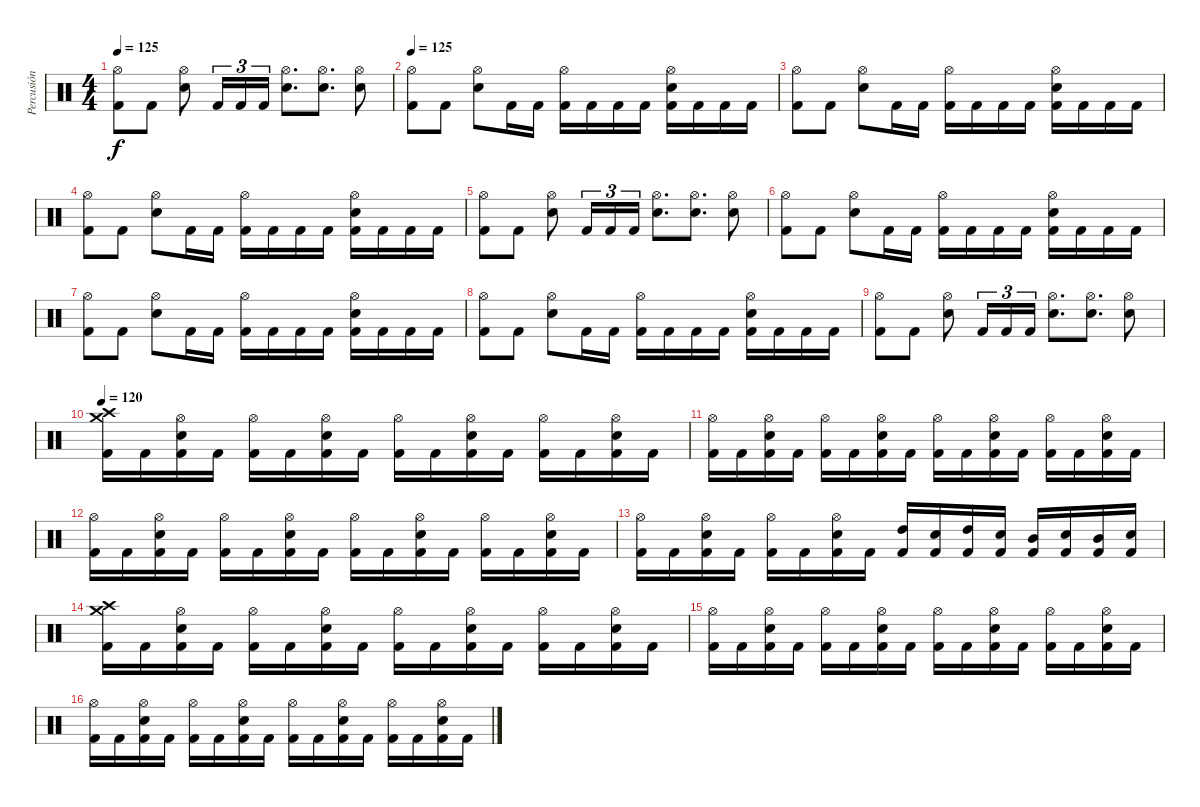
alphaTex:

\track ("Percusión" "Percusión") {instrument percussion}
\staff {score}
\articulation defaults
\ts (4 4)
\tempo 125
\clef neutral
\ks c
("Hi-Hat (open)" "Kick (hit) 2").8{dy f} "Kick (hit) 2".8 ("Hi-Hat (open)" "Electric Snare (hit)").8 "Kick (hit) 2".16{tu (3 2)} "Kick (hit) 2".16{tu (3 2)} "Kick (hit) 2".16{tu (3 2)} ("Hi-Hat (open)" "Electric Snare (hit)").8{d} ("Hi-Hat (open)" "Electric Snare (hit)").8{d} ("Hi-Hat (open)" "Electric Snare (hit)").8 |
\tempo 125
("Hi-Hat (open)" "Kick (hit) 2").8 "Kick (hit) 2".8 ("Hi-Hat (open)" "Electric Snare (hit)").8 "Kick (hit) 2".16 "Kick (hit) 2".16 ("Hi-Hat (open)" "Kick (hit) 2").16 "Kick (hit) 2".16 "Kick (hit) 2".16 "Kick (hit) 2".16 ("Hi-Hat (open)" "Electric Snare (hit)" "Kick (hit) 2").16 "Kick (hit) 2".16 "Kick (hit) 2".16 "Kick (hit) 2".16 |
("Hi-Hat (open)" "Kick (hit) 2").8 "Kick (hit) 2".8 ("Hi-Hat (open)" "Electric Snare (hit)").8 "Kick (hit) 2".16 "Kick (hit) 2".16 ("Hi-Hat (open)" "Kick (hit) 2").16 "Kick (hit) 2".16 "Kick (hit) 2".16 "Kick (hit) 2".16 ("Hi-Hat (open)" "Electric Snare (hit)" "Kick (hit) 2").16 "Kick (hit) 2".16 "Kick (hit) 2".16 "Kick (hit) 2".16 |
("Hi-Hat (open)" "Kick (hit) 2").8 "Kick (hit) 2".8 ("Hi-Hat (open)" "Electric Snare (hit)").8 "Kick (hit) 2".16 "Kick (hit) 2".16 ("Hi-Hat (open)" "Kick (hit) 2").16 "Kick (hit) 2".16 "Kick (hit) 2".16 "Kick (hit) 2".16 ("Hi-Hat (open)" "Electric Snare (hit)" "Kick (hit) 2").16 "Kick (hit) 2".16 "Kick (hit) 2".16 "Kick (hit) 2".16 |
("Hi-Hat (open)" "Kick (hit) 2").8 "Kick (hit) 2".8 ("Hi-Hat (open)" "Electric Snare (hit)").8 "Kick (hit) 2".16{tu (3 2)} "Kick (hit) 2".16{tu (3 2)} "Kick (hit) 2".16{tu (3 2)} ("Hi-Hat (open)" "Electric Snare (hit)").8{d} ("Hi-Hat (open)" "Electric Snare (hit)").8{d} ("Hi-Hat (open)" "Electric Snare (hit)").8 |
("Hi-Hat (open)" "Kick (hit) 2").8 "Kick (hit) 2".8 ("Hi-Hat (open)" "Electric Snare (hit)").8 "Kick (hit) 2".16 "Kick (hit) 2".16 ("Hi-Hat (open)" "Kick (hit) 2").16 "Kick (hit) 2".16 "Kick (hit) 2".16 "Kick (hit) 2".16 ("Hi-Hat (open)" "Electric Snare (hit)" "Kick (hit) 2").16 "Kick (hit) 2".16 "Kick (hit) 2".16 "Kick (hit) 2".16 |
("Hi-Hat (open)" "Kick (hit) 2").8 "Kick (hit) 2".8 ("Hi-Hat (open)" "Electric Snare (hit)").8 "Kick (hit) 2".16 "Kick (hit) 2".16 ("Hi-Hat (open)" "Kick (hit) 2").16 "Kick (hit) 2".16 "Kick (hit) 2".16 "Kick (hit) 2".16 ("Hi-Hat (open)" "Electric Snare (hit)" "Kick (hit) 2").16 "Kick (hit) 2".16 "Kick (hit) 2".16 "Kick (hit) 2".16 |
("Hi-Hat (open)" "Kick (hit) 2").8 "Kick (hit) 2".8 ("Hi-Hat (open)" "Electric Snare (hit)").8 "Kick (hit) 2".16 "Kick (hit) 2".16 ("Hi-Hat (open)" "Kick (hit) 2").16 "Kick (hit) 2".16 "Kick (hit) 2".16 "Kick (hit) 2".16 ("Hi-Hat (open)" "Electric Snare (hit)" "Kick (hit) 2").16 "Kick (hit) 2".16 "Kick (hit) 2".16 "Kick (hit) 2".16 |
("Hi-Hat (open)" "Kick (hit) 2").8 "Kick (hit) 2".8 ("Hi-Hat (open)" "Electric Snare (hit)").8 "Kick (hit) 2".16{tu (3 2)} "Kick (hit) 2".16{tu (3 2)} "Kick (hit) 2".16{tu (3 2)} ("Hi-Hat (open)" "Electric Snare (hit)").8{d} ("Hi-Hat (open)" "Electric Snare (hit)").8{d} ("Hi-Hat (open)" "Electric Snare (hit)").8 |
\tempo 120
("Crash high (hit)" "Crash medium (hit)" "Kick (hit) 2").16 "Kick (hit) 2".16 ("Hi-Hat (open)" "Electric Snare (hit)" "Kick (hit) 2").16 "Kick (hit) 2".16 ("Hi-Hat (open)" "Kick (hit) 2").16 "Kick (hit) 2".16 ("Hi-Hat (open)" "Electric Snare (hit)" "Kick (hit) 2").16 "Kick (hit) 2".16 ("Hi-Hat (open)" "Kick (hit) 2").16 "Kick (hit) 2".16 ("Hi-Hat (open)" "Electric Snare (hit)" "Kick (hit) 2").16 "Kick (hit) 2".16 ("Hi-Hat (open)" "Kick (hit) 2").16 "Kick (hit) 2".16 ("Hi-Hat (open)" "Electric Snare (hit)" "Kick (hit) 2").16 "Kick (hit) 2".16 |
("Hi-Hat (open)" "Kick (hit) 2").16 "Kick (hit) 2".16 ("Hi-Hat (open)" "Electric Snare (hit)" "Kick (hit) 2").16 "Kick (hit) 2".16 ("Hi-Hat (open)" "Kick (hit) 2").16 "Kick (hit) 2".16 ("Hi-Hat (open)" "Electric Snare (hit)" "Kick (hit) 2").16 "Kick (hit) 2".16 ("Hi-Hat (open)" "Kick (hit) 2").16 "Kick (hit) 2".16 ("Hi-Hat (open)" "Electric Snare (hit)" "Kick (hit) 2").16 "Kick (hit) 2".16 ("Hi-Hat (open)" "Kick (hit) 2").16 "Kick (hit) 2".16 ("Hi-Hat (open)" "Electric Snare (hit)" "Kick (hit) 2").16 "Kick (hit) 2".16 |
("Hi-Hat (open)" "Kick (hit) 2").16 "Kick (hit) 2".16 ("Hi-Hat (open)" "Electric Snare (hit)" "Kick (hit) 2").16 "Kick (hit) 2".16 ("Hi-Hat (open)" "Kick (hit) 2").16 "Kick (hit) 2".16 ("Hi-Hat (open)" "Electric Snare (hit)" "Kick (hit) 2").16 "Kick (hit) 2".16 ("Hi-Hat (open)" "Kick (hit) 2").16 "Kick (hit) 2".16 ("Hi-Hat (open)" "Electric Snare (hit)" "Kick (hit) 2").16 "Kick (hit) 2".16 ("Hi-Hat (open)" "Kick (hit) 2").16 "Kick (hit) 2".16 ("Hi-Hat (open)" "Electric Snare (hit)" "Kick (hit) 2").16 "Kick (hit) 2".16 |
("Hi-Hat (open)" "Kick (hit) 2").16 "Kick (hit) 2".16 ("Hi-Hat (open)" "Electric Snare (hit)" "Kick (hit) 2").16 "Kick (hit) 2".16 ("Hi-Hat (open)" "Kick (hit) 2").16 "Kick (hit) 2".16 ("Hi-Hat (open)" "Electric Snare (hit)" "Kick (hit) 2").16 "Kick (hit) 2".16 ("High Tom (hit)" "Kick (hit) 2").16 ("Electric Snare (hit)" "Kick (hit) 2").16 ("High Tom (hit)" "Kick (hit) 2").16 ("Electric Snare (hit)" "Kick (hit) 2").16 ("Mid Tom (hit)" "Kick (hit) 2").16 ("Electric Snare (hit)" "Kick (hit) 2").16 ("Mid Tom (hit)" "Kick (hit) 2").16 ("Electric Snare (hit)" "Kick (hit) 2").16 |
("Crash high (hit)" "Crash medium (hit)" "Kick (hit) 2").16 "Kick (hit) 2".16 ("Hi-Hat (open)" "Electric Snare (hit)" "Kick (hit) 2").16 "Kick (hit) 2".16 ("Hi-Hat (open)" "Kick (hit) 2").16 "Kick (hit) 2".16 ("Hi-Hat (open)" "Electric Snare (hit)" "Kick (hit) 2").16 "Kick (hit) 2".16 ("Hi-Hat (open)" "Kick (hit) 2").16 "Kick (hit) 2".16 ("Hi-Hat (open)" "Electric Snare (hit)" "Kick (hit) 2").16 "Kick (hit) 2".16 ("Hi-Hat (open)" "Kick (hit) 2").16 "Kick (hit) 2".16 ("Hi-Hat (open)" "Electric Snare (hit)" "Kick (hit) 2").16 "Kick (hit) 2".16 |
("Hi-Hat (open)" "Kick (hit) 2").16 "Kick (hit) 2".16 ("Hi-Hat (open)" "Electric Snare (hit)" "Kick (hit) 2").16 "Kick (hit) 2".16 ("Hi-Hat (open)" "Kick (hit) 2").16 "Kick (hit) 2".16 ("Hi-Hat (open)" "Electric Snare (hit)" "Kick (hit) 2").16 "Kick (hit) 2".16 ("Hi-Hat (open)" "Kick (hit) 2").16 "Kick (hit) 2".16 ("Hi-Hat (open)" "Electric Snare (hit)" "Kick (hit) 2").16 "Kick (hit) 2".16 ("Hi-Hat (open)" "Kick (hit) 2").16 "Kick (hit) 2".16 ("Hi-Hat (open)" "Electric Snare (hit)" "Kick (hit) 2").16 "Kick (hit) 2".16 |
("Hi-Hat (open)" "Kick (hit) 2").16 "Kick (hit) 2".16 ("Hi-Hat (open)" "Electric Snare (hit)" "Kick (hit) 2").16 "Kick (hit) 2".16 ("Hi-Hat (open)" "Kick (hit) 2").16 "Kick (hit) 2".16 ("Hi-Hat (open)" "Electric Snare (hit)" "Kick (hit) 2").16 "Kick (hit) 2".16 ("Hi-Hat (open)" "Kick (hit) 2").16 "Kick (hit) 2".16 ("Hi-Hat (open)" "Electric Snare (hit)" "Kick (hit) 2").16 "Kick (hit) 2".16 ("Hi-Hat (open)" "Kick (hit) 2").16 "Kick (hit) 2".16 ("Hi-Hat (open)" "Electric Snare (hit)" "Kick (hit) 2").16 "Kick (hit) 2".16
